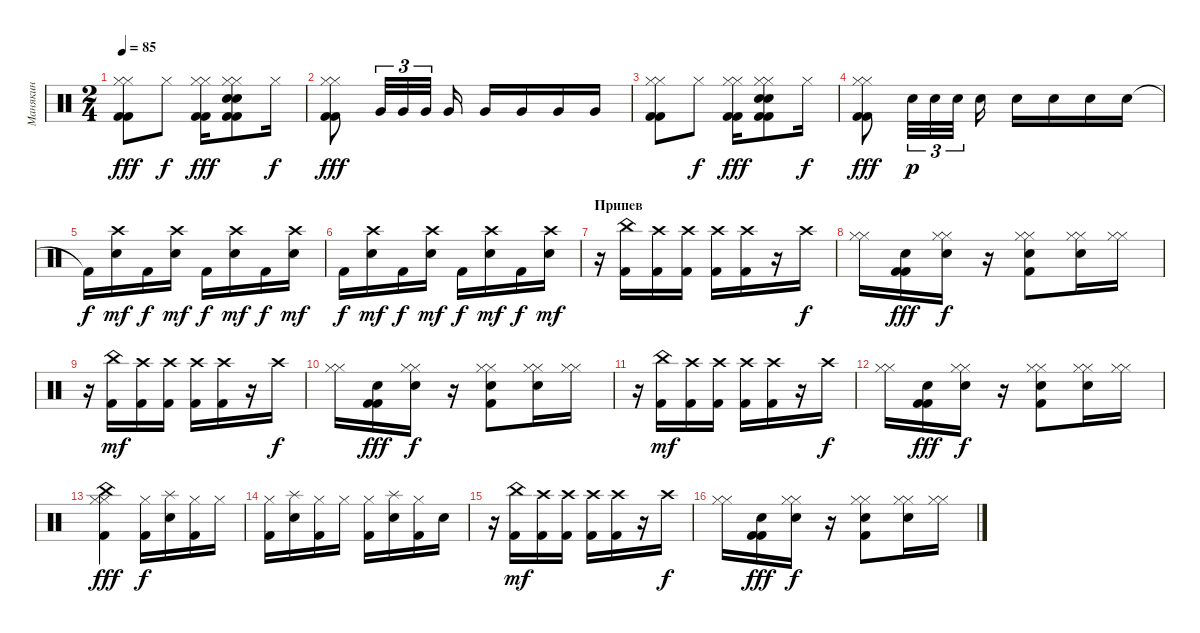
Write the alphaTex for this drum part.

\track ("Манякин" "Манякин") {instrument percussion}
\staff {score}
\articulation defaults
\ts (2 4)
\tempo 85
\clef neutral
\ks c
("Kick (hit) 2" "Kick (hit) 2" "Hi-Hat (closed)" "Hi-Hat (closed)").8{dy fff} "Hi-Hat (closed)".8{dy f} ("Kick (hit) 2" "Kick (hit) 2" "Hi-Hat (closed)" "Hi-Hat (closed)").16{dy fff} ("Kick (hit) 2" "Kick (hit) 2" "Snare (hit) 2" "Snare (hit) 2" "Hi-Hat (closed)" "Hi-Hat (closed)").8 "Hi-Hat (closed)".16{dy f} |
("Kick (hit) 2" "Kick (hit) 2" "Hi-Hat (closed)" "Hi-Hat (closed)").8{dy fff} "Very Low Tom (hit)".32{tu (3 2)} "Very Low Tom (hit)".32{tu (3 2)} "Very Low Tom (hit)".32{tu (3 2)} "Very Low Tom (hit)".16 "Very Low Tom (hit)".16 "Very Low Tom (hit)".16 "Very Low Tom (hit)".16 "Very Low Tom (hit)".16 |
("Kick (hit) 2" "Kick (hit) 2" "Hi-Hat (closed)" "Hi-Hat (closed)").8 "Hi-Hat (closed)".8{dy f} ("Kick (hit) 2" "Kick (hit) 2" "Hi-Hat (closed)" "Hi-Hat (closed)").16{dy fff} ("Kick (hit) 2" "Kick (hit) 2" "Snare (hit) 2" "Snare (hit) 2" "Hi-Hat (closed)" "Hi-Hat (closed)").8 "Hi-Hat (closed)".16{dy f} |
("Kick (hit) 2" "Kick (hit) 2" "Hi-Hat (closed)" "Hi-Hat (closed)").8{dy fff} "Snare (hit) 2".32{tu (3 2) dy p} "Snare (hit) 2".32{tu (3 2)} "Snare (hit) 2".32{tu (3 2)} "Snare (hit) 2".16 "Snare (hit) 2".16 "Snare (hit) 2".16 "Snare (hit) 2".16 "Snare (hit) 2".16 |
"Kick (hit) 2"{t}.16{dy f} ("Snare (hit) 2" "Crash high (hit)").16{dy mf} "Kick (hit) 2".16{dy f} ("Snare (hit) 2" "Crash high (hit)").16{dy mf} "Kick (hit) 2".16{dy f} ("Snare (hit) 2" "Crash high (hit)").16{dy mf} "Kick (hit) 2".16{dy f} ("Snare (hit) 2" "Crash high (hit)").16{dy mf} |
"Kick (hit) 2".16{dy f} ("Snare (hit) 2" "Crash high (hit)").16{dy mf} "Kick (hit) 2".16{dy f} ("Snare (hit) 2" "Crash high (hit)").16{dy mf} "Kick (hit) 2".16{dy f} ("Snare (hit) 2" "Crash high (hit)").16{dy mf} "Kick (hit) 2".16{dy f} ("Snare (hit) 2" "Crash high (hit)").16{dy mf} |
\section ("" "Припев")
r.16 ("Kick (hit) 2" "China (hit)").16 ("Kick (hit) 2" "Crash high (hit)").16 ("Kick (hit) 2" "Crash high (hit)").16 ("Kick (hit) 2" "Crash high (hit)").16 ("Kick (hit) 2" "Crash high (hit)").16 r.16 "Crash high (hit)".16{dy f} |
("Hi-Hat (closed)" "Hi-Hat (closed)").16 ("Snare (hit) 2" "Kick (hit) 2" "Kick (hit) 2").16{dy fff} ("Snare (hit) 2" "Hi-Hat (closed)" "Hi-Hat (closed)").16{dy f} r.16 ("Snare (hit) 2" "Kick (hit) 2" "Hi-Hat (closed)" "Hi-Hat (closed)").8 ("Snare (hit) 2" "Hi-Hat (closed)" "Hi-Hat (closed)").16 ("Hi-Hat (closed)" "Hi-Hat (closed)").16 |
r.16 ("Kick (hit) 2" "China (hit)").16{dy mf} ("Kick (hit) 2" "Crash high (hit)").16 ("Kick (hit) 2" "Crash high (hit)").16 ("Kick (hit) 2" "Crash high (hit)").16 ("Kick (hit) 2" "Crash high (hit)").16 r.16 "Crash high (hit)".16{dy f} |
("Hi-Hat (closed)" "Hi-Hat (closed)").16 ("Snare (hit) 2" "Kick (hit) 2" "Kick (hit) 2").16{dy fff} ("Snare (hit) 2" "Hi-Hat (closed)" "Hi-Hat (closed)").16{dy f} r.16 ("Snare (hit) 2" "Kick (hit) 2" "Hi-Hat (closed)" "Hi-Hat (closed)").8 ("Snare (hit) 2" "Hi-Hat (closed)" "Hi-Hat (closed)").16 ("Hi-Hat (closed)" "Hi-Hat (closed)").16 |
r.16 ("Kick (hit) 2" "China (hit)").16{dy mf} ("Kick (hit) 2" "Crash high (hit)").16 ("Kick (hit) 2" "Crash high (hit)").16 ("Kick (hit) 2" "Crash high (hit)").16 ("Kick (hit) 2" "Crash high (hit)").16 r.16 "Crash high (hit)".16{dy f} |
("Hi-Hat (closed)" "Hi-Hat (closed)").16 ("Snare (hit) 2" "Kick (hit) 2" "Kick (hit) 2").16{dy fff} ("Snare (hit) 2" "Hi-Hat (closed)" "Hi-Hat (closed)").16{dy f} r.16 ("Snare (hit) 2" "Kick (hit) 2" "Hi-Hat (closed)" "Hi-Hat (closed)").8 ("Snare (hit) 2" "Hi-Hat (closed)" "Hi-Hat (closed)").16 ("Hi-Hat (closed)" "Hi-Hat (closed)").16 |
("Kick (hit) 2" "China (hit)" "Hi-Hat (closed)" "Hi-Hat (closed)").4{dy fff} ("Kick (hit) 2" "Hi-Hat (closed)").16{dy f} ("Snare (hit) 2" "Splash (hit)").16 ("Kick (hit) 2" "Hi-Hat (closed)").16 "Hi-Hat (closed)".16 |
("Kick (hit) 2" "Hi-Hat (closed)").16 ("Snare (hit) 2" "Splash (hit)").16 ("Kick (hit) 2" "Hi-Hat (closed)").16 "Hi-Hat (closed)".16 ("Kick (hit) 2" "Hi-Hat (closed)").16 ("Snare (hit) 2" "Splash (hit)").16 ("Kick (hit) 2" "Hi-Hat (closed)").16 "Snare (hit) 2".16 |
r.16 ("Kick (hit) 2" "China (hit)").16{dy mf} ("Kick (hit) 2" "Crash high (hit)").16 ("Kick (hit) 2" "Crash high (hit)").16 ("Kick (hit) 2" "Crash high (hit)").16 ("Kick (hit) 2" "Crash high (hit)").16 r.16 "Crash high (hit)".16{dy f} |
("Hi-Hat (closed)" "Hi-Hat (closed)").16 ("Snare (hit) 2" "Kick (hit) 2" "Kick (hit) 2").16{dy fff} ("Snare (hit) 2" "Hi-Hat (closed)" "Hi-Hat (closed)").16{dy f} r.16 ("Snare (hit) 2" "Kick (hit) 2" "Hi-Hat (closed)" "Hi-Hat (closed)").8 ("Snare (hit) 2" "Hi-Hat (closed)" "Hi-Hat (closed)").16 ("Hi-Hat (closed)" "Hi-Hat (closed)").16
